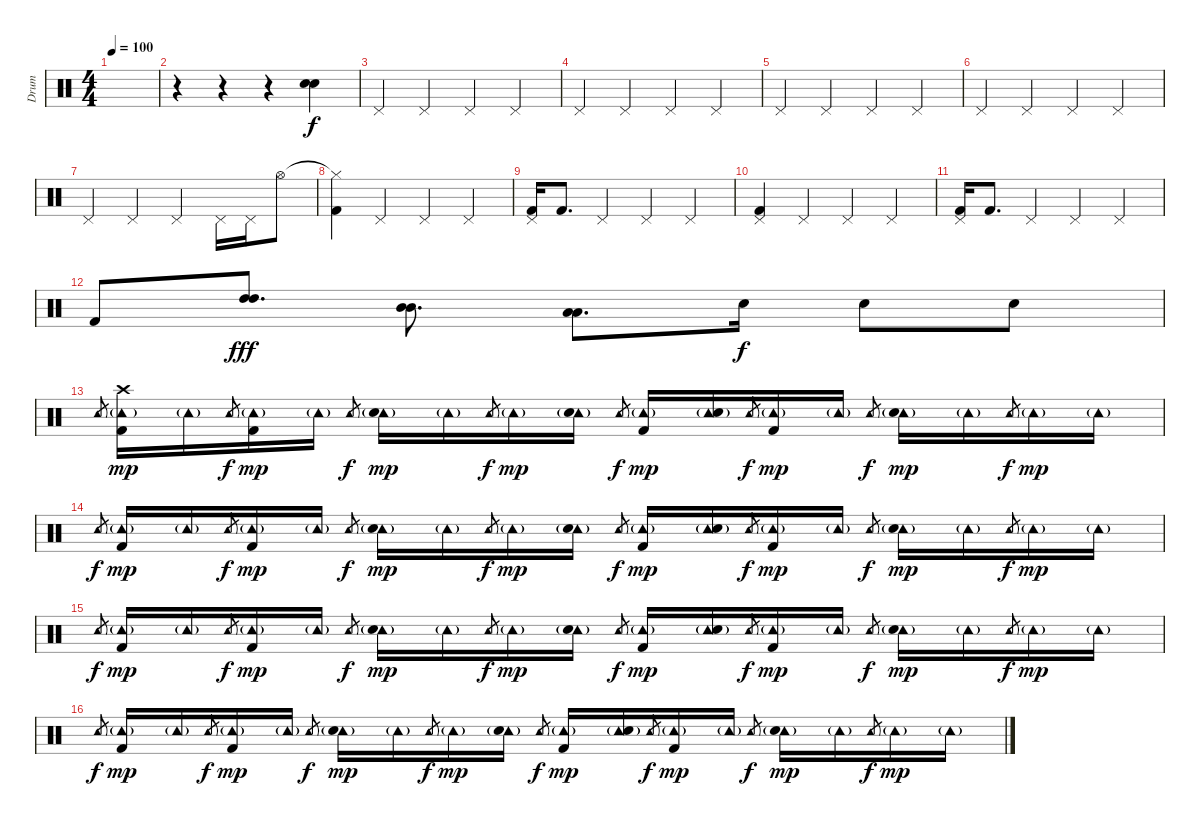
\track ("Drum" "Drum") {instrument percussion}
\staff {score}
\articulation defaults
\ts (4 4)
\tempo 100
\clef neutral
\ks c
|
r.4 r.4 r.4 ("Electric Snare (hit)" "Electric Snare (hit)").4 |
"Pedal Hi-Hat (hit)".4 "Pedal Hi-Hat (hit)".4 "Pedal Hi-Hat (hit)".4 "Pedal Hi-Hat (hit)".4 |
"Pedal Hi-Hat (hit)".4 "Pedal Hi-Hat (hit)".4 "Pedal Hi-Hat (hit)".4 "Pedal Hi-Hat (hit)".4 |
"Pedal Hi-Hat (hit)".4 "Pedal Hi-Hat (hit)".4 "Pedal Hi-Hat (hit)".4 "Pedal Hi-Hat (hit)".4 |
"Pedal Hi-Hat (hit)".4 "Pedal Hi-Hat (hit)".4 "Pedal Hi-Hat (hit)".4 "Pedal Hi-Hat (hit)".4 |
"Pedal Hi-Hat (hit)".4 "Pedal Hi-Hat (hit)".4 "Pedal Hi-Hat (hit)".4 "Pedal Hi-Hat (hit)".16 "Pedal Hi-Hat (hit)".16 "Hi-Hat (open)".8 |
("Hi-Hat (closed)"{t} "Kick (hit) 2").4 "Pedal Hi-Hat (hit)".4 "Pedal Hi-Hat (hit)".4 "Pedal Hi-Hat (hit)".4 |
("Pedal Hi-Hat (hit)" "Kick (hit) 2").16 "Kick (hit) 2".8{d} "Pedal Hi-Hat (hit)".4 "Pedal Hi-Hat (hit)".4 "Pedal Hi-Hat (hit)".4 |
("Pedal Hi-Hat (hit)" "Kick (hit) 2").4 "Pedal Hi-Hat (hit)".4 "Pedal Hi-Hat (hit)".4 "Pedal Hi-Hat (hit)".4 |
("Pedal Hi-Hat (hit)" "Kick (hit) 2").16 "Kick (hit) 2".8{d} "Pedal Hi-Hat (hit)".4 "Pedal Hi-Hat (hit)".4 "Pedal Hi-Hat (hit)".4 |
"Kick (hit) 2".8 ("High Tom (hit)" "High Tom (hit)").8{d dy fff} ("Mid Tom (hit)" "Mid Tom (hit)").8{d} ("Low Tom (hit)" "Low Tom (hit)").8{d} "Electric Snare (hit)".16{dy f} "Electric Snare (hit)".8 "Electric Snare (hit)".8 |
"Tambourine (hit)".8{gr} ("Crash high (hit)" "Tambourine (hit)"{g} "Kick (hit) 2").16{dy mp} "Tambourine (hit)"{g}.16 "Tambourine (hit)".8{gr dy f} ("Tambourine (hit)"{g} "Kick (hit) 2").16{dy mp} "Tambourine (hit)"{g}.16 "Tambourine (hit)".8{gr dy f} ("Tambourine (hit)"{g} "Electric Snare (hit)").16{dy mp} "Tambourine (hit)"{g}.16 "Tambourine (hit)".8{gr dy f} "Tambourine (hit)"{g}.16{dy mp} ("Tambourine (hit)"{g} "Electric Snare (hit)").16 "Tambourine (hit)".8{gr dy f} ("Tambourine (hit)"{g} "Kick (hit) 2").16{dy mp} ("Tambourine (hit)"{g} "Electric Snare (hit)").16 "Tambourine (hit)".8{gr dy f} ("Tambourine (hit)"{g} "Kick (hit) 2").16{dy mp} "Tambourine (hit)"{g}.16 "Tambourine (hit)".8{gr dy f} ("Tambourine (hit)"{g} "Electric Snare (hit)").16{dy mp} "Tambourine (hit)"{g}.16 "Tambourine (hit)".8{gr dy f} "Tambourine (hit)"{g}.16{dy mp} "Tambourine (hit)"{g}.16 |
"Tambourine (hit)".8{gr dy f} ("Tambourine (hit)"{g} "Kick (hit) 2").16{dy mp} "Tambourine (hit)"{g}.16 "Tambourine (hit)".8{gr dy f} ("Tambourine (hit)"{g} "Kick (hit) 2").16{dy mp} "Tambourine (hit)"{g}.16 "Tambourine (hit)".8{gr dy f} ("Tambourine (hit)"{g} "Electric Snare (hit)").16{dy mp} "Tambourine (hit)"{g}.16 "Tambourine (hit)".8{gr dy f} "Tambourine (hit)"{g}.16{dy mp} ("Tambourine (hit)"{g} "Electric Snare (hit)").16 "Tambourine (hit)".8{gr dy f} ("Tambourine (hit)"{g} "Kick (hit) 2").16{dy mp} ("Tambourine (hit)"{g} "Electric Snare (hit)").16 "Tambourine (hit)".8{gr dy f} ("Tambourine (hit)"{g} "Kick (hit) 2").16{dy mp} "Tambourine (hit)"{g}.16 "Tambourine (hit)".8{gr dy f} ("Tambourine (hit)"{g} "Electric Snare (hit)").16{dy mp} "Tambourine (hit)"{g}.16 "Tambourine (hit)".8{gr dy f} "Tambourine (hit)"{g}.16{dy mp} "Tambourine (hit)"{g}.16 |
"Tambourine (hit)".8{gr dy f} ("Tambourine (hit)"{g} "Kick (hit) 2").16{dy mp} "Tambourine (hit)"{g}.16 "Tambourine (hit)".8{gr dy f} ("Tambourine (hit)"{g} "Kick (hit) 2").16{dy mp} "Tambourine (hit)"{g}.16 "Tambourine (hit)".8{gr dy f} ("Tambourine (hit)"{g} "Electric Snare (hit)").16{dy mp} "Tambourine (hit)"{g}.16 "Tambourine (hit)".8{gr dy f} "Tambourine (hit)"{g}.16{dy mp} ("Tambourine (hit)"{g} "Electric Snare (hit)").16 "Tambourine (hit)".8{gr dy f} ("Tambourine (hit)"{g} "Kick (hit) 2").16{dy mp} ("Tambourine (hit)"{g} "Electric Snare (hit)").16 "Tambourine (hit)".8{gr dy f} ("Tambourine (hit)"{g} "Kick (hit) 2").16{dy mp} "Tambourine (hit)"{g}.16 "Tambourine (hit)".8{gr dy f} ("Tambourine (hit)"{g} "Electric Snare (hit)").16{dy mp} "Tambourine (hit)"{g}.16 "Tambourine (hit)".8{gr dy f} "Tambourine (hit)"{g}.16{dy mp} "Tambourine (hit)"{g}.16 |
"Tambourine (hit)".8{gr dy f} ("Tambourine (hit)"{g} "Kick (hit) 2").16{dy mp} "Tambourine (hit)"{g}.16 "Tambourine (hit)".8{gr dy f} ("Tambourine (hit)"{g} "Kick (hit) 2").16{dy mp} "Tambourine (hit)"{g}.16 "Tambourine (hit)".8{gr dy f} ("Tambourine (hit)"{g} "Electric Snare (hit)").16{dy mp} "Tambourine (hit)"{g}.16 "Tambourine (hit)".8{gr dy f} "Tambourine (hit)"{g}.16{dy mp} ("Tambourine (hit)"{g} "Electric Snare (hit)").16 "Tambourine (hit)".8{gr dy f} ("Tambourine (hit)"{g} "Kick (hit) 2").16{dy mp} ("Tambourine (hit)"{g} "Electric Snare (hit)").16 "Tambourine (hit)".8{gr dy f} ("Tambourine (hit)"{g} "Kick (hit) 2").16{dy mp} "Tambourine (hit)"{g}.16 "Tambourine (hit)".8{gr dy f} ("Tambourine (hit)"{g} "Electric Snare (hit)").16{dy mp} "Tambourine (hit)"{g}.16 "Tambourine (hit)".8{gr dy f} "Tambourine (hit)"{g}.16{dy mp} "Tambourine (hit)"{g}.16
